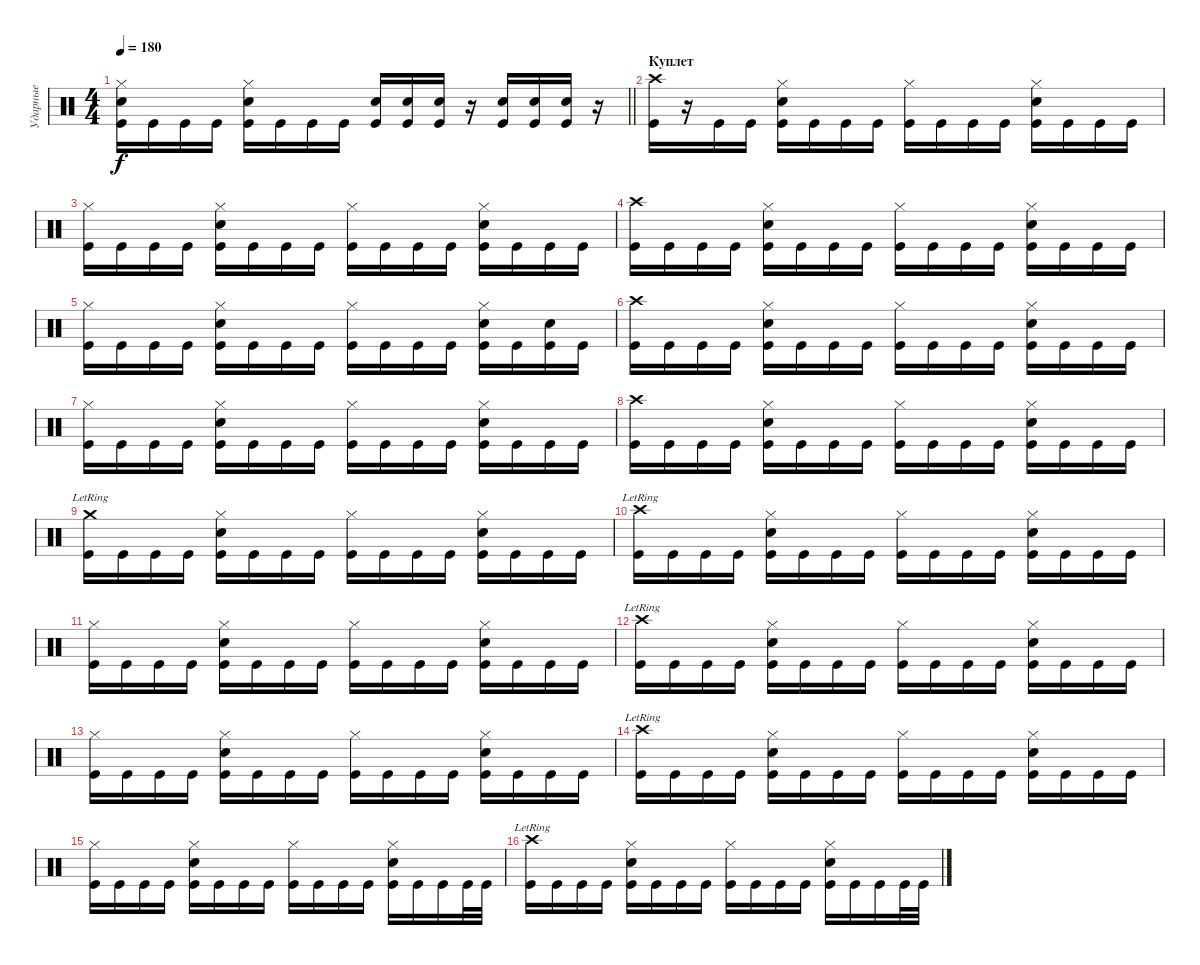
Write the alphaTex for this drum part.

\track ("Ударные" "Ударные") {instrument percussion}
\staff {score}
\articulation defaults
\ts (4 4)
\tempo 180
\clef neutral
\barLineRight lightlight
\ks c
("Hi-Hat (closed)" "Electric Snare (hit)" "Kick (hit)").16{dy f} "Kick (hit)".16 "Kick (hit)".16 "Kick (hit)".16 ("Hi-Hat (closed)" "Electric Snare (hit)" "Kick (hit)").16 "Kick (hit)".16 "Kick (hit)".16 "Kick (hit)".16 ("Electric Snare (hit)" "Kick (hit)").16 ("Electric Snare (hit)" "Kick (hit)").16 ("Electric Snare (hit)" "Kick (hit)").16 r.16 ("Electric Snare (hit)" "Kick (hit)").16 ("Electric Snare (hit)" "Kick (hit)").16 ("Electric Snare (hit)" "Kick (hit)").16 r.16 |
\section ("" "Куплет")
("Crash high (hit)" "Kick (hit)").16 r.16 "Kick (hit)".16 "Kick (hit)".16 ("Hi-Hat (closed)" "Electric Snare (hit)" "Kick (hit)").16 "Kick (hit)".16 "Kick (hit)".16 "Kick (hit)".16 ("Hi-Hat (closed)" "Kick (hit)").16 "Kick (hit)".16 "Kick (hit)".16 "Kick (hit)".16 ("Hi-Hat (closed)" "Electric Snare (hit)" "Kick (hit)").16 "Kick (hit)".16 "Kick (hit)".16 "Kick (hit)".16 |
("Hi-Hat (closed)" "Kick (hit)").16 "Kick (hit)".16 "Kick (hit)".16 "Kick (hit)".16 ("Hi-Hat (closed)" "Electric Snare (hit)" "Kick (hit)").16 "Kick (hit)".16 "Kick (hit)".16 "Kick (hit)".16 ("Hi-Hat (closed)" "Kick (hit)").16 "Kick (hit)".16 "Kick (hit)".16 "Kick (hit)".16 ("Hi-Hat (closed)" "Electric Snare (hit)" "Kick (hit)").16 "Kick (hit)".16 "Kick (hit)".16 "Kick (hit)".16 |
("Crash high (hit)" "Kick (hit)").16 "Kick (hit)".16 "Kick (hit)".16 "Kick (hit)".16 ("Hi-Hat (closed)" "Electric Snare (hit)" "Kick (hit)").16 "Kick (hit)".16 "Kick (hit)".16 "Kick (hit)".16 ("Hi-Hat (closed)" "Kick (hit)").16 "Kick (hit)".16 "Kick (hit)".16 "Kick (hit)".16 ("Hi-Hat (closed)" "Electric Snare (hit)" "Kick (hit)").16 "Kick (hit)".16 "Kick (hit)".16 "Kick (hit)".16 |
("Hi-Hat (closed)" "Kick (hit)").16 "Kick (hit)".16 "Kick (hit)".16 "Kick (hit)".16 ("Hi-Hat (closed)" "Electric Snare (hit)" "Kick (hit)").16 "Kick (hit)".16 "Kick (hit)".16 "Kick (hit)".16 ("Hi-Hat (closed)" "Kick (hit)").16 "Kick (hit)".16 "Kick (hit)".16 "Kick (hit)".16 ("Hi-Hat (closed)" "Electric Snare (hit)" "Kick (hit)").16 "Kick (hit)".16 ("Electric Snare (hit)" "Kick (hit)").16 "Kick (hit)".16 |
("Crash high (hit)" "Kick (hit)").16 "Kick (hit)".16 "Kick (hit)".16 "Kick (hit)".16 ("Hi-Hat (closed)" "Electric Snare (hit)" "Kick (hit)").16 "Kick (hit)".16 "Kick (hit)".16 "Kick (hit)".16 ("Hi-Hat (closed)" "Kick (hit)").16 "Kick (hit)".16 "Kick (hit)".16 "Kick (hit)".16 ("Hi-Hat (closed)" "Electric Snare (hit)" "Kick (hit)").16 "Kick (hit)".16 "Kick (hit)".16 "Kick (hit)".16 |
("Hi-Hat (closed)" "Kick (hit)").16 "Kick (hit)".16 "Kick (hit)".16 "Kick (hit)".16 ("Hi-Hat (closed)" "Electric Snare (hit)" "Kick (hit)").16 "Kick (hit)".16 "Kick (hit)".16 "Kick (hit)".16 ("Hi-Hat (closed)" "Kick (hit)").16 "Kick (hit)".16 "Kick (hit)".16 "Kick (hit)".16 ("Hi-Hat (closed)" "Electric Snare (hit)" "Kick (hit)").16 "Kick (hit)".16 "Kick (hit)".16 "Kick (hit)".16 |
("Crash high (hit)" "Kick (hit)").16 "Kick (hit)".16 "Kick (hit)".16 "Kick (hit)".16 ("Hi-Hat (closed)" "Electric Snare (hit)" "Kick (hit)").16 "Kick (hit)".16 "Kick (hit)".16 "Kick (hit)".16 ("Hi-Hat (closed)" "Kick (hit)").16 "Kick (hit)".16 "Kick (hit)".16 "Kick (hit)".16 ("Hi-Hat (closed)" "Electric Snare (hit)" "Kick (hit)").16 "Kick (hit)".16 "Kick (hit)".16 "Kick (hit)".16 |
("Crash medium (hit)"{lr} "Kick (hit)").16 "Kick (hit)".16 "Kick (hit)".16 "Kick (hit)".16 ("Hi-Hat (closed)" "Electric Snare (hit)" "Kick (hit)").16 "Kick (hit)".16 "Kick (hit)".16 "Kick (hit)".16 ("Hi-Hat (closed)" "Kick (hit)").16 "Kick (hit)".16 "Kick (hit)".16 "Kick (hit)".16 ("Hi-Hat (closed)" "Electric Snare (hit)" "Kick (hit)").16 "Kick (hit)".16 "Kick (hit)".16 "Kick (hit)".16 |
("Crash high (hit)"{lr} "Kick (hit)").16 "Kick (hit)".16 "Kick (hit)".16 "Kick (hit)".16 ("Hi-Hat (closed)" "Electric Snare (hit)" "Kick (hit)").16 "Kick (hit)".16 "Kick (hit)".16 "Kick (hit)".16 ("Hi-Hat (closed)" "Kick (hit)").16 "Kick (hit)".16 "Kick (hit)".16 "Kick (hit)".16 ("Hi-Hat (closed)" "Electric Snare (hit)" "Kick (hit)").16 "Kick (hit)".16 "Kick (hit)".16 "Kick (hit)".16 |
("Hi-Hat (closed)" "Kick (hit)").16 "Kick (hit)".16 "Kick (hit)".16 "Kick (hit)".16 ("Hi-Hat (closed)" "Electric Snare (hit)" "Kick (hit)").16 "Kick (hit)".16 "Kick (hit)".16 "Kick (hit)".16 ("Hi-Hat (closed)" "Kick (hit)").16 "Kick (hit)".16 "Kick (hit)".16 "Kick (hit)".16 ("Hi-Hat (closed)" "Electric Snare (hit)" "Kick (hit)").16 "Kick (hit)".16 "Kick (hit)".16 "Kick (hit)".16 |
("Crash high (hit)"{lr} "Kick (hit)").16 "Kick (hit)".16 "Kick (hit)".16 "Kick (hit)".16 ("Hi-Hat (closed)" "Electric Snare (hit)" "Kick (hit)").16 "Kick (hit)".16 "Kick (hit)".16 "Kick (hit)".16 ("Hi-Hat (closed)" "Kick (hit)").16 "Kick (hit)".16 "Kick (hit)".16 "Kick (hit)".16 ("Hi-Hat (closed)" "Electric Snare (hit)" "Kick (hit)").16 "Kick (hit)".16 "Kick (hit)".16 "Kick (hit)".16 |
("Hi-Hat (closed)" "Kick (hit)").16 "Kick (hit)".16 "Kick (hit)".16 "Kick (hit)".16 ("Hi-Hat (closed)" "Electric Snare (hit)" "Kick (hit)").16 "Kick (hit)".16 "Kick (hit)".16 "Kick (hit)".16 ("Hi-Hat (closed)" "Kick (hit)").16 "Kick (hit)".16 "Kick (hit)".16 "Kick (hit)".16 ("Hi-Hat (closed)" "Electric Snare (hit)" "Kick (hit)").16 "Kick (hit)".16 "Kick (hit)".16 "Kick (hit)".16 |
("Crash high (hit)"{lr} "Kick (hit)").16 "Kick (hit)".16 "Kick (hit)".16 "Kick (hit)".16 ("Hi-Hat (closed)" "Electric Snare (hit)" "Kick (hit)").16 "Kick (hit)".16 "Kick (hit)".16 "Kick (hit)".16 ("Hi-Hat (closed)" "Kick (hit)").16 "Kick (hit)".16 "Kick (hit)".16 "Kick (hit)".16 ("Hi-Hat (closed)" "Electric Snare (hit)" "Kick (hit)").16 "Kick (hit)".16 "Kick (hit)".16 "Kick (hit)".16 |
("Hi-Hat (closed)" "Kick (hit)").16 "Kick (hit)".16 "Kick (hit)".16 "Kick (hit)".16 ("Hi-Hat (closed)" "Electric Snare (hit)" "Kick (hit)").16 "Kick (hit)".16 "Kick (hit)".16 "Kick (hit)".16 ("Hi-Hat (closed)" "Kick (hit)").16 "Kick (hit)".16 "Kick (hit)".16 "Kick (hit)".16 ("Hi-Hat (closed)" "Electric Snare (hit)" "Kick (hit)").16 "Kick (hit)".16 "Kick (hit)".16 "Kick (hit)".32 "Kick (hit)".32 |
("Crash high (hit)"{lr} "Kick (hit)").16 "Kick (hit)".16 "Kick (hit)".16 "Kick (hit)".16 ("Hi-Hat (closed)" "Electric Snare (hit)" "Kick (hit)").16 "Kick (hit)".16 "Kick (hit)".16 "Kick (hit)".16 ("Hi-Hat (closed)" "Kick (hit)").16 "Kick (hit)".16 "Kick (hit)".16 "Kick (hit)".16 ("Hi-Hat (closed)" "Electric Snare (hit)" "Kick (hit)").16 "Kick (hit)".16 "Kick (hit)".16 "Kick (hit)".32 "Kick (hit)".32
